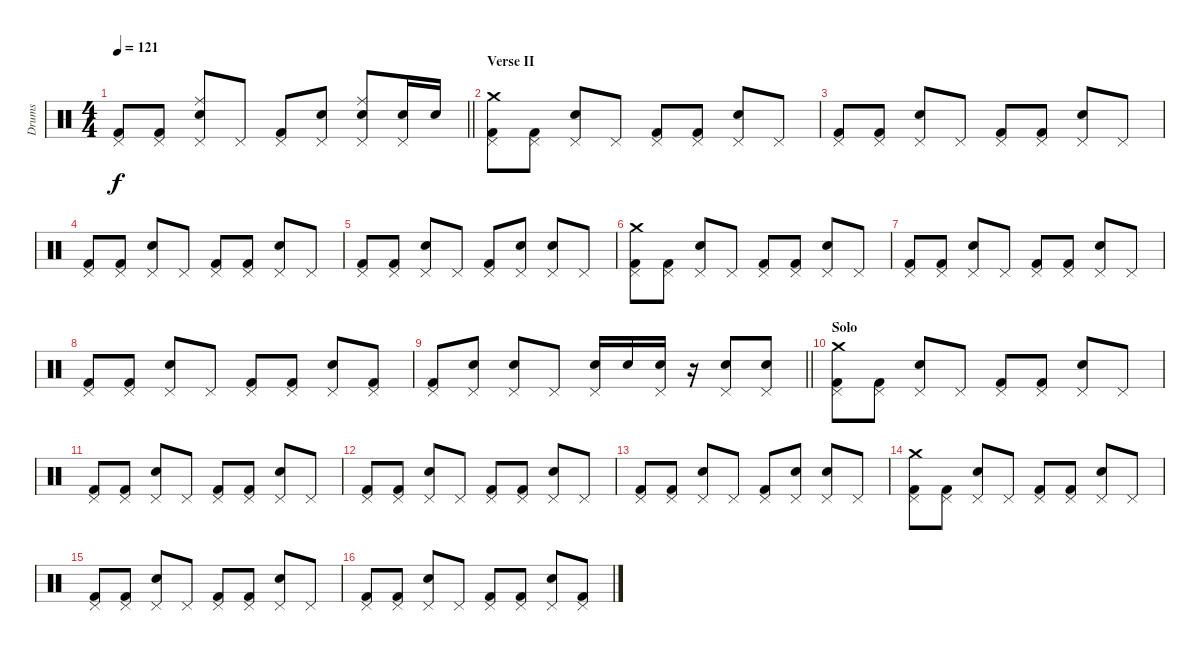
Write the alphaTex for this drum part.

\track ("Drums" "Drums") {instrument percussion}
\staff {score}
\articulation defaults
\ts (4 4)
\tempo 121
\clef neutral
\barLineRight lightlight
\ks c
("Pedal Hi-Hat (hit)" "Kick (hit) 2").8{dy f} ("Pedal Hi-Hat (hit)" "Kick (hit) 2").8 ("Pedal Hi-Hat (hit)" "Ride (middle)" "Snare (hit) 2").8 "Pedal Hi-Hat (hit)".8 ("Pedal Hi-Hat (hit)" "Kick (hit) 2").8 ("Pedal Hi-Hat (hit)" "Snare (hit) 2").8 ("Pedal Hi-Hat (hit)" "Ride (middle)" "Snare (hit) 2").8 ("Pedal Hi-Hat (hit)" "Snare (hit) 2").16 "Snare (hit) 2".16 |
\section ("" "Verse II")
("Pedal Hi-Hat (hit)" "Crash medium (hit)" "Kick (hit) 2").8 ("Pedal Hi-Hat (hit)" "Kick (hit) 2").8 ("Pedal Hi-Hat (hit)" "Snare (hit) 2").8 "Pedal Hi-Hat (hit)".8 ("Pedal Hi-Hat (hit)" "Kick (hit) 2").8 ("Pedal Hi-Hat (hit)" "Kick (hit) 2").8 ("Pedal Hi-Hat (hit)" "Snare (hit) 2").8 "Pedal Hi-Hat (hit)".8 |
("Pedal Hi-Hat (hit)" "Kick (hit) 2").8 ("Pedal Hi-Hat (hit)" "Kick (hit) 2").8 ("Pedal Hi-Hat (hit)" "Snare (hit) 2").8 "Pedal Hi-Hat (hit)".8 ("Pedal Hi-Hat (hit)" "Kick (hit) 2").8 ("Pedal Hi-Hat (hit)" "Kick (hit) 2").8 ("Pedal Hi-Hat (hit)" "Snare (hit) 2").8 "Pedal Hi-Hat (hit)".8 |
("Pedal Hi-Hat (hit)" "Kick (hit) 2").8 ("Pedal Hi-Hat (hit)" "Kick (hit) 2").8 ("Pedal Hi-Hat (hit)" "Snare (hit) 2").8 "Pedal Hi-Hat (hit)".8 ("Pedal Hi-Hat (hit)" "Kick (hit) 2").8 ("Pedal Hi-Hat (hit)" "Kick (hit) 2").8 ("Pedal Hi-Hat (hit)" "Snare (hit) 2").8 "Pedal Hi-Hat (hit)".8 |
("Pedal Hi-Hat (hit)" "Kick (hit) 2").8 ("Pedal Hi-Hat (hit)" "Kick (hit) 2").8 ("Pedal Hi-Hat (hit)" "Snare (hit) 2").8 "Pedal Hi-Hat (hit)".8 ("Pedal Hi-Hat (hit)" "Kick (hit) 2").8 ("Pedal Hi-Hat (hit)" "Snare (hit) 2").8 ("Pedal Hi-Hat (hit)" "Snare (hit) 2").8 "Pedal Hi-Hat (hit)".8 |
("Pedal Hi-Hat (hit)" "Crash medium (hit)" "Kick (hit) 2").8 ("Pedal Hi-Hat (hit)" "Kick (hit) 2").8 ("Pedal Hi-Hat (hit)" "Snare (hit) 2").8 "Pedal Hi-Hat (hit)".8 ("Pedal Hi-Hat (hit)" "Kick (hit) 2").8 ("Pedal Hi-Hat (hit)" "Kick (hit) 2").8 ("Pedal Hi-Hat (hit)" "Snare (hit) 2").8 "Pedal Hi-Hat (hit)".8 |
("Pedal Hi-Hat (hit)" "Kick (hit) 2").8 ("Pedal Hi-Hat (hit)" "Kick (hit) 2").8 ("Pedal Hi-Hat (hit)" "Snare (hit) 2").8 "Pedal Hi-Hat (hit)".8 ("Pedal Hi-Hat (hit)" "Kick (hit) 2").8 ("Pedal Hi-Hat (hit)" "Kick (hit) 2").8 ("Pedal Hi-Hat (hit)" "Snare (hit) 2").8 "Pedal Hi-Hat (hit)".8 |
("Pedal Hi-Hat (hit)" "Kick (hit) 2").8 ("Pedal Hi-Hat (hit)" "Kick (hit) 2").8 ("Pedal Hi-Hat (hit)" "Snare (hit) 2").8 "Pedal Hi-Hat (hit)".8 ("Pedal Hi-Hat (hit)" "Kick (hit) 2").8 ("Pedal Hi-Hat (hit)" "Kick (hit) 2").8 ("Pedal Hi-Hat (hit)" "Snare (hit) 2").8 ("Pedal Hi-Hat (hit)" "Kick (hit) 2").8 |
\barLineRight lightlight
("Pedal Hi-Hat (hit)" "Kick (hit) 2").8 ("Pedal Hi-Hat (hit)" "Snare (hit) 2").8 ("Pedal Hi-Hat (hit)" "Snare (hit) 2").8 "Pedal Hi-Hat (hit)".8 ("Pedal Hi-Hat (hit)" "Snare (hit) 2").16 "Snare (hit) 2".16 ("Pedal Hi-Hat (hit)" "Snare (hit) 2").16 r.16 ("Pedal Hi-Hat (hit)" "Snare (hit) 2").8 ("Pedal Hi-Hat (hit)" "Snare (hit) 2").8 |
\section ("" "Solo")
("Pedal Hi-Hat (hit)" "Crash medium (hit)" "Kick (hit) 2").8 ("Pedal Hi-Hat (hit)" "Kick (hit) 2").8 ("Pedal Hi-Hat (hit)" "Snare (hit) 2").8 "Pedal Hi-Hat (hit)".8 ("Pedal Hi-Hat (hit)" "Kick (hit) 2").8 ("Pedal Hi-Hat (hit)" "Kick (hit) 2").8 ("Pedal Hi-Hat (hit)" "Snare (hit) 2").8 "Pedal Hi-Hat (hit)".8 |
("Pedal Hi-Hat (hit)" "Kick (hit) 2").8 ("Pedal Hi-Hat (hit)" "Kick (hit) 2").8 ("Pedal Hi-Hat (hit)" "Snare (hit) 2").8 "Pedal Hi-Hat (hit)".8 ("Pedal Hi-Hat (hit)" "Kick (hit) 2").8 ("Pedal Hi-Hat (hit)" "Kick (hit) 2").8 ("Pedal Hi-Hat (hit)" "Snare (hit) 2").8 "Pedal Hi-Hat (hit)".8 |
("Pedal Hi-Hat (hit)" "Kick (hit) 2").8 ("Pedal Hi-Hat (hit)" "Kick (hit) 2").8 ("Pedal Hi-Hat (hit)" "Snare (hit) 2").8 "Pedal Hi-Hat (hit)".8 ("Pedal Hi-Hat (hit)" "Kick (hit) 2").8 ("Pedal Hi-Hat (hit)" "Kick (hit) 2").8 ("Pedal Hi-Hat (hit)" "Snare (hit) 2").8 "Pedal Hi-Hat (hit)".8 |
("Pedal Hi-Hat (hit)" "Kick (hit) 2").8 ("Pedal Hi-Hat (hit)" "Kick (hit) 2").8 ("Pedal Hi-Hat (hit)" "Snare (hit) 2").8 "Pedal Hi-Hat (hit)".8 ("Pedal Hi-Hat (hit)" "Kick (hit) 2").8 ("Pedal Hi-Hat (hit)" "Snare (hit) 2").8 ("Pedal Hi-Hat (hit)" "Snare (hit) 2").8 "Pedal Hi-Hat (hit)".8 |
("Pedal Hi-Hat (hit)" "Crash medium (hit)" "Kick (hit) 2").8 ("Pedal Hi-Hat (hit)" "Kick (hit) 2").8 ("Pedal Hi-Hat (hit)" "Snare (hit) 2").8 "Pedal Hi-Hat (hit)".8 ("Pedal Hi-Hat (hit)" "Kick (hit) 2").8 ("Pedal Hi-Hat (hit)" "Kick (hit) 2").8 ("Pedal Hi-Hat (hit)" "Snare (hit) 2").8 "Pedal Hi-Hat (hit)".8 |
("Pedal Hi-Hat (hit)" "Kick (hit) 2").8 ("Pedal Hi-Hat (hit)" "Kick (hit) 2").8 ("Pedal Hi-Hat (hit)" "Snare (hit) 2").8 "Pedal Hi-Hat (hit)".8 ("Pedal Hi-Hat (hit)" "Kick (hit) 2").8 ("Pedal Hi-Hat (hit)" "Kick (hit) 2").8 ("Pedal Hi-Hat (hit)" "Snare (hit) 2").8 "Pedal Hi-Hat (hit)".8 |
("Pedal Hi-Hat (hit)" "Kick (hit) 2").8 ("Pedal Hi-Hat (hit)" "Kick (hit) 2").8 ("Pedal Hi-Hat (hit)" "Snare (hit) 2").8 "Pedal Hi-Hat (hit)".8 ("Pedal Hi-Hat (hit)" "Kick (hit) 2").8 ("Pedal Hi-Hat (hit)" "Kick (hit) 2").8 ("Pedal Hi-Hat (hit)" "Snare (hit) 2").8 ("Pedal Hi-Hat (hit)" "Kick (hit) 2").8
